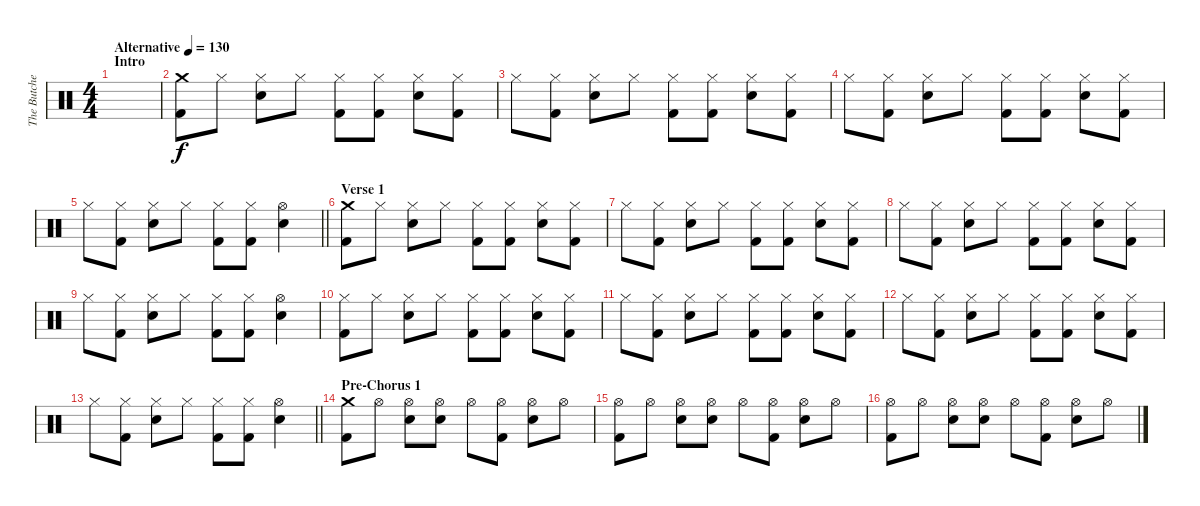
\track ("The Butcher (Drums)" "The Butche") {instrument percussion}
\staff {score}
\articulation defaults
\ts (4 4)
\section ("" "Intro")
\tempo (130 "Alternative")
\clef neutral
\ks c
|
("Crash medium (hit)" "Kick (hit) 2").8 "Hi-Hat (closed)".8 ("Hi-Hat (closed)" "Electric Snare (hit)").8 "Hi-Hat (closed)".8 ("Hi-Hat (closed)" "Kick (hit) 2").8 ("Hi-Hat (closed)" "Kick (hit) 2").8 ("Hi-Hat (closed)" "Electric Snare (hit)").8 ("Hi-Hat (closed)" "Kick (hit) 2").8 |
"Hi-Hat (closed)".8 ("Hi-Hat (closed)" "Kick (hit) 2").8 ("Hi-Hat (closed)" "Electric Snare (hit)").8 "Hi-Hat (closed)".8 ("Hi-Hat (closed)" "Kick (hit) 2").8 ("Hi-Hat (closed)" "Kick (hit) 2").8 ("Hi-Hat (closed)" "Electric Snare (hit)").8 ("Hi-Hat (closed)" "Kick (hit) 2").8 |
"Hi-Hat (closed)".8 ("Hi-Hat (closed)" "Kick (hit) 2").8 ("Hi-Hat (closed)" "Electric Snare (hit)").8 "Hi-Hat (closed)".8 ("Hi-Hat (closed)" "Kick (hit) 2").8 ("Hi-Hat (closed)" "Kick (hit) 2").8 ("Hi-Hat (closed)" "Electric Snare (hit)").8 ("Hi-Hat (closed)" "Kick (hit) 2").8 |
\barLineRight lightlight "Hi-Hat (closed)".8
("Hi-Hat (closed)" "Kick (hit) 2").8 ("Hi-Hat (closed)" "Electric Snare (hit)").8 "Hi-Hat (closed)".8 ("Hi-Hat (closed)" "Kick (hit) 2").8 ("Hi-Hat (closed)" "Kick (hit) 2").8 ("Hi-Hat (open)" "Electric Snare (hit)").4 |
\section ("" "Verse 1")
("Crash medium (hit)" "Kick (hit) 2").8 "Hi-Hat (closed)".8 ("Hi-Hat (closed)" "Electric Snare (hit)").8 "Hi-Hat (closed)".8 ("Hi-Hat (closed)" "Kick (hit) 2").8 ("Hi-Hat (closed)" "Kick (hit) 2").8 ("Hi-Hat (closed)" "Electric Snare (hit)").8 ("Hi-Hat (closed)" "Kick (hit) 2").8 |
"Hi-Hat (closed)".8 ("Hi-Hat (closed)" "Kick (hit) 2").8 ("Hi-Hat (closed)" "Electric Snare (hit)").8 "Hi-Hat (closed)".8 ("Hi-Hat (closed)" "Kick (hit) 2").8 ("Hi-Hat (closed)" "Kick (hit) 2").8 ("Hi-Hat (closed)" "Electric Snare (hit)").8 ("Hi-Hat (closed)" "Kick (hit) 2").8 |
"Hi-Hat (closed)".8 ("Hi-Hat (closed)" "Kick (hit) 2").8 ("Hi-Hat (closed)" "Electric Snare (hit)").8 "Hi-Hat (closed)".8 ("Hi-Hat (closed)" "Kick (hit) 2").8 ("Hi-Hat (closed)" "Kick (hit) 2").8 ("Hi-Hat (closed)" "Electric Snare (hit)").8 ("Hi-Hat (closed)" "Kick (hit) 2").8 |
"Hi-Hat (closed)".8 ("Hi-Hat (closed)" "Kick (hit) 2").8 ("Hi-Hat (closed)" "Electric Snare (hit)").8 "Hi-Hat (closed)".8 ("Hi-Hat (closed)" "Kick (hit) 2").8 ("Hi-Hat (closed)" "Kick (hit) 2").8 ("Hi-Hat (open)" "Electric Snare (hit)").4 |
("Hi-Hat (closed)" "Kick (hit) 2").8 "Hi-Hat (closed)".8 ("Hi-Hat (closed)" "Electric Snare (hit)").8 "Hi-Hat (closed)".8 ("Hi-Hat (closed)" "Kick (hit) 2").8 ("Hi-Hat (closed)" "Kick (hit) 2").8 ("Hi-Hat (closed)" "Electric Snare (hit)").8 ("Hi-Hat (closed)" "Kick (hit) 2").8 |
"Hi-Hat (closed)".8 ("Hi-Hat (closed)" "Kick (hit) 2").8 ("Hi-Hat (closed)" "Electric Snare (hit)").8 "Hi-Hat (closed)".8 ("Hi-Hat (closed)" "Kick (hit) 2").8 ("Hi-Hat (closed)" "Kick (hit) 2").8 ("Hi-Hat (closed)" "Electric Snare (hit)").8 ("Hi-Hat (closed)" "Kick (hit) 2").8 |
"Hi-Hat (closed)".8 ("Hi-Hat (closed)" "Kick (hit) 2").8 ("Hi-Hat (closed)" "Electric Snare (hit)").8 "Hi-Hat (closed)".8 ("Hi-Hat (closed)" "Kick (hit) 2").8 ("Hi-Hat (closed)" "Kick (hit) 2").8 ("Hi-Hat (closed)" "Electric Snare (hit)").8 ("Hi-Hat (closed)" "Kick (hit) 2").8 |
\barLineRight lightlight "Hi-Hat (closed)".8
("Hi-Hat (closed)" "Kick (hit) 2").8 ("Hi-Hat (closed)" "Electric Snare (hit)").8 "Hi-Hat (closed)".8 ("Hi-Hat (closed)" "Kick (hit) 2").8 ("Hi-Hat (closed)" "Kick (hit) 2").8 ("Hi-Hat (open)" "Electric Snare (hit)").4 |
\section ("" "Pre-Chorus 1")
("Crash medium (hit)" "Kick (hit) 2").8 "Hi-Hat (open)".8 ("Hi-Hat (open)" "Electric Snare (hit)").8 ("Hi-Hat (open)" "Electric Snare (hit)").8 "Hi-Hat (open)".8 ("Hi-Hat (open)" "Kick (hit) 2").8 ("Hi-Hat (open)" "Electric Snare (hit)").8 "Hi-Hat (open)".8 |
("Hi-Hat (open)" "Kick (hit) 2").8 "Hi-Hat (open)".8 ("Hi-Hat (open)" "Electric Snare (hit)").8 ("Hi-Hat (open)" "Electric Snare (hit)").8 "Hi-Hat (open)".8 ("Hi-Hat (open)" "Kick (hit) 2").8 ("Hi-Hat (open)" "Electric Snare (hit)").8 "Hi-Hat (open)".8 |
("Hi-Hat (open)" "Kick (hit) 2").8 "Hi-Hat (open)".8 ("Hi-Hat (open)" "Electric Snare (hit)").8 ("Hi-Hat (open)" "Electric Snare (hit)").8 "Hi-Hat (open)".8 ("Hi-Hat (open)" "Kick (hit) 2").8 ("Hi-Hat (open)" "Electric Snare (hit)").8 "Hi-Hat (open)".8
